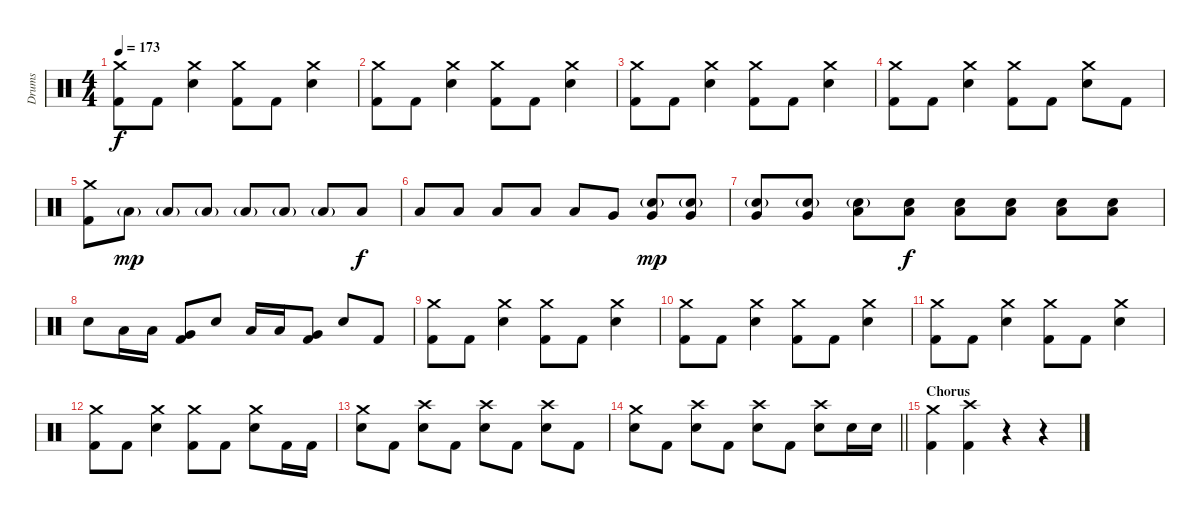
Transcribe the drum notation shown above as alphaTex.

\track ("Drums" "Drums") {instrument percussion}
\staff {score}
\articulation defaults
\ts (4 4)
\tempo 173
\clef neutral
\ks c
("Crash medium (hit)" "Kick (hit) 2").8{dy f} "Kick (hit) 2".8 ("Crash medium (hit)" "Electric Snare (hit)").4 ("Crash medium (hit)" "Kick (hit) 2").8 "Kick (hit) 2".8 ("Crash medium (hit)" "Electric Snare (hit)").4 |
("Crash medium (hit)" "Kick (hit) 2").8 "Kick (hit) 2".8 ("Crash medium (hit)" "Electric Snare (hit)").4 ("Crash medium (hit)" "Kick (hit) 2").8 "Kick (hit) 2".8 ("Crash medium (hit)" "Electric Snare (hit)").4 |
("Crash medium (hit)" "Kick (hit) 2").8 "Kick (hit) 2".8 ("Crash medium (hit)" "Electric Snare (hit)").4 ("Crash medium (hit)" "Kick (hit) 2").8 "Kick (hit) 2".8 ("Crash medium (hit)" "Electric Snare (hit)").4 |
("Crash medium (hit)" "Kick (hit) 2").8 "Kick (hit) 2".8 ("Crash medium (hit)" "Electric Snare (hit)").4 ("Crash medium (hit)" "Kick (hit) 2").8 "Kick (hit) 2".8 ("Crash medium (hit)" "Electric Snare (hit)").8 "Kick (hit) 2".8 |
("Crash medium (hit)" "Kick (hit) 2").8 "Low Floor Tom (hit)"{g}.8{dy mp} "Low Floor Tom (hit)"{g}.8 "Low Floor Tom (hit)"{g}.8 "Low Floor Tom (hit)"{g}.8 "Low Floor Tom (hit)"{g}.8 "Low Floor Tom (hit)"{g}.8 "Low Floor Tom (hit)".8{dy f} |
"Low Floor Tom (hit)".8 "Low Floor Tom (hit)".8 "Low Floor Tom (hit)".8 "Low Floor Tom (hit)".8 "Low Floor Tom (hit)".8 "Very Low Tom (hit)".8 ("Electric Snare (hit)"{g} "Very Low Tom (hit)").8{dy mp} ("Electric Snare (hit)"{g} "Very Low Tom (hit)").8 |
("Electric Snare (hit)"{g} "Very Low Tom (hit)").8 ("Electric Snare (hit)"{g} "Very Low Tom (hit)").8 ("Electric Snare (hit)"{g} "Low Tom (hit)").8 ("Electric Snare (hit)" "Low Tom (hit)").8{dy f} ("Electric Snare (hit)" "Low Tom (hit)").8 ("Electric Snare (hit)" "Low Tom (hit)").8 ("Electric Snare (hit)" "Low Tom (hit)").8 ("Electric Snare (hit)" "Low Tom (hit)").8 |
"Electric Snare (hit)".8 "Low Tom (hit)".16 "Low Tom (hit)".16 ("Very Low Tom (hit)" "Kick (hit) 2").8 "Electric Snare (hit)".8 "Low Tom (hit)".16 "Low Tom (hit)".16 ("Very Low Tom (hit)" "Kick (hit) 2").8 "Electric Snare (hit)".8 "Kick (hit) 2".8 |
("Crash medium (hit)" "Kick (hit) 2").8 "Kick (hit) 2".8 ("Crash medium (hit)" "Electric Snare (hit)").4 ("Crash medium (hit)" "Kick (hit) 2").8 "Kick (hit) 2".8 ("Crash medium (hit)" "Electric Snare (hit)").4 |
("Crash medium (hit)" "Kick (hit) 2").8 "Kick (hit) 2".8 ("Crash medium (hit)" "Electric Snare (hit)").4 ("Crash medium (hit)" "Kick (hit) 2").8 "Kick (hit) 2".8 ("Crash medium (hit)" "Electric Snare (hit)").4 |
("Crash medium (hit)" "Kick (hit) 2").8 "Kick (hit) 2".8 ("Crash medium (hit)" "Electric Snare (hit)").4 ("Crash medium (hit)" "Kick (hit) 2").8 "Kick (hit) 2".8 ("Crash medium (hit)" "Electric Snare (hit)").4 |
("Crash medium (hit)" "Kick (hit) 2").8 "Kick (hit) 2".8 ("Crash medium (hit)" "Electric Snare (hit)").4 ("Crash medium (hit)" "Kick (hit) 2").8 "Kick (hit) 2".8 ("Crash medium (hit)" "Electric Snare (hit)").8 "Kick (hit) 2".16 "Kick (hit) 2".16 |
("Crash medium (hit)" "Electric Snare (hit)").8 "Kick (hit) 2".8 ("Crash high (hit)" "Electric Snare (hit)").8 "Kick (hit) 2".8 ("Crash high (hit)" "Electric Snare (hit)").8 "Kick (hit) 2".8 ("Crash high (hit)" "Electric Snare (hit)").8 "Kick (hit) 2".8 |
\barLineRight lightlight
("Crash medium (hit)" "Electric Snare (hit)").8 "Kick (hit) 2".8 ("Crash high (hit)" "Electric Snare (hit)").8 "Kick (hit) 2".8 ("Crash high (hit)" "Electric Snare (hit)").8 "Kick (hit) 2".8 ("Crash high (hit)" "Electric Snare (hit)").8 "Electric Snare (hit)".16 "Electric Snare (hit)".16 |
\section ("" "Chorus")
("Crash medium (hit)" "Kick (hit) 2").4 ("Crash high (hit)" "Kick (hit) 2").4 r.4 r.4
